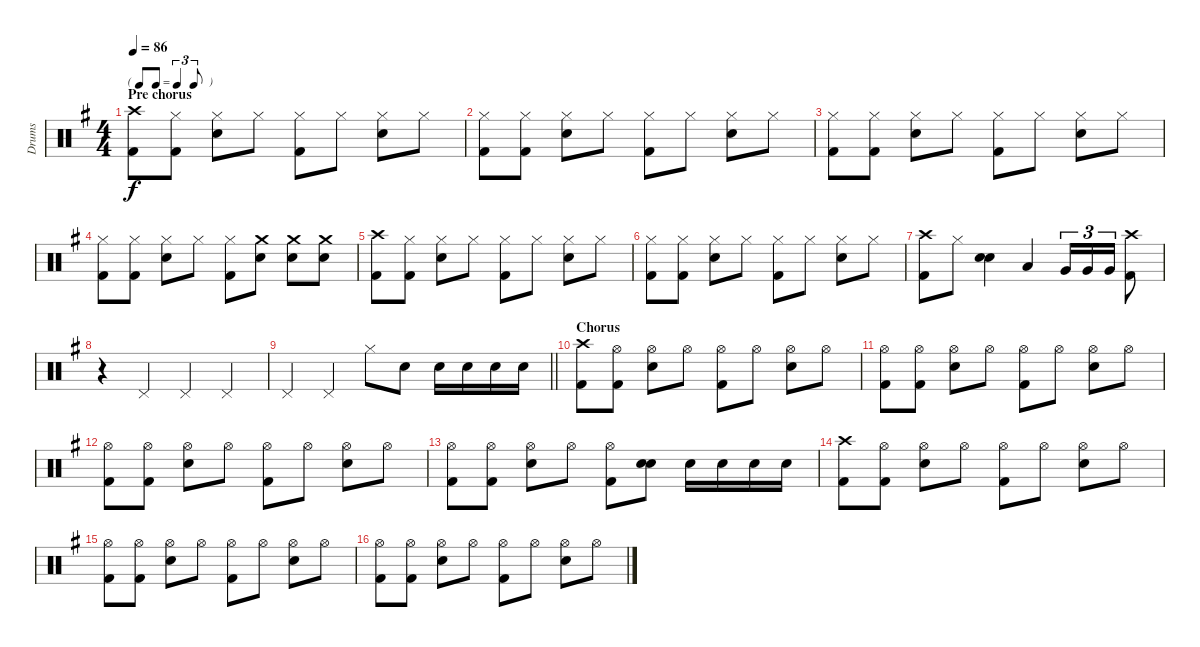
\track ("Drums" "Drums") {instrument percussion}
\staff {score}
\articulation defaults
\ts (4 4)
\tf triplet8th
\section ("" "Pre chorus")
\tempo 86
\clef neutral
\ks g
("Crash high (hit)" "Kick (hit) 2").8{dy f} ("Hi-Hat (closed)" "Kick (hit) 2").8 ("Hi-Hat (closed)" "Snare (hit) 2").8 "Hi-Hat (closed)".8 ("Hi-Hat (closed)" "Kick (hit) 2").8 "Hi-Hat (closed)".8 ("Hi-Hat (closed)" "Snare (hit) 2").8 "Hi-Hat (closed)".8 |
("Hi-Hat (closed)" "Kick (hit) 2").8 ("Hi-Hat (closed)" "Kick (hit) 2").8 ("Hi-Hat (closed)" "Snare (hit) 2").8 "Hi-Hat (closed)".8 ("Hi-Hat (closed)" "Kick (hit) 2").8 "Hi-Hat (closed)".8 ("Hi-Hat (closed)" "Snare (hit) 2").8 "Hi-Hat (closed)".8 |
("Hi-Hat (closed)" "Kick (hit) 2").8 ("Hi-Hat (closed)" "Kick (hit) 2").8 ("Hi-Hat (closed)" "Snare (hit) 2").8 "Hi-Hat (closed)".8 ("Hi-Hat (closed)" "Kick (hit) 2").8 "Hi-Hat (closed)".8 ("Hi-Hat (closed)" "Snare (hit) 2").8 "Hi-Hat (closed)".8 |
("Hi-Hat (closed)" "Kick (hit) 2").8 ("Hi-Hat (closed)" "Kick (hit) 2").8 ("Hi-Hat (closed)" "Snare (hit) 2").8 "Hi-Hat (closed)".8 ("Hi-Hat (closed)" "Kick (hit) 2").8 ("Crash medium (hit)" "Snare (hit) 2").8 ("Crash medium (hit)" "Snare (hit) 2").8 ("Crash medium (hit)" "Snare (hit) 2").8 |
("Crash high (hit)" "Kick (hit) 2").8 ("Hi-Hat (closed)" "Kick (hit) 2").8 ("Hi-Hat (closed)" "Snare (hit) 2").8 "Hi-Hat (closed)".8 ("Hi-Hat (closed)" "Kick (hit) 2").8 "Hi-Hat (closed)".8 ("Hi-Hat (closed)" "Snare (hit) 2").8 "Hi-Hat (closed)".8 |
("Hi-Hat (closed)" "Kick (hit) 2").8 ("Hi-Hat (closed)" "Kick (hit) 2").8 ("Hi-Hat (closed)" "Snare (hit) 2").8 "Hi-Hat (closed)".8 ("Hi-Hat (closed)" "Kick (hit) 2").8 "Hi-Hat (closed)".8 ("Hi-Hat (closed)" "Snare (hit) 2").8 "Hi-Hat (closed)".8 |
("Crash high (hit)" "Kick (hit) 2").8 "Hi-Hat (closed)".8 ("Snare (hit) 2" "Snare (hit) 2").4 "Low Tom (hit)".4 "Very Low Tom (hit)".16{tu (3 2)} "Very Low Tom (hit)".16{tu (3 2)} "Very Low Tom (hit)".16{tu (3 2)} ("Crash high (hit)" "Kick (hit) 2").8 |
r.4 "Pedal Hi-Hat (hit)".4 "Pedal Hi-Hat (hit)".4 "Pedal Hi-Hat (hit)".4 |
\barLineRight lightlight "Pedal Hi-Hat (hit)".4 "Pedal Hi-Hat (hit)".4 "Hi-Hat (closed)".8 "Snare (hit) 2".8 "Snare (hit) 2".16 "Snare (hit) 2".16 "Snare (hit) 2".16 "Snare (hit) 2".16
|
\section ("" "Chorus")
("Crash high (hit)" "Kick (hit) 2").8 ("Hi-Hat (open)" "Kick (hit) 2").8 ("Hi-Hat (open)" "Snare (hit) 2").8 "Hi-Hat (open)".8 ("Hi-Hat (open)" "Kick (hit) 2").8 "Hi-Hat (open)".8 ("Hi-Hat (open)" "Snare (hit) 2").8 "Hi-Hat (open)".8 |
("Hi-Hat (open)" "Kick (hit) 2").8 ("Hi-Hat (open)" "Kick (hit) 2").8 ("Hi-Hat (open)" "Snare (hit) 2").8 "Hi-Hat (open)".8 ("Hi-Hat (open)" "Kick (hit) 2").8 "Hi-Hat (open)".8 ("Hi-Hat (open)" "Snare (hit) 2").8 "Hi-Hat (open)".8 |
("Hi-Hat (open)" "Kick (hit) 2").8 ("Hi-Hat (open)" "Kick (hit) 2").8 ("Hi-Hat (open)" "Snare (hit) 2").8 "Hi-Hat (open)".8 ("Hi-Hat (open)" "Kick (hit) 2").8 "Hi-Hat (open)".8 ("Hi-Hat (open)" "Snare (hit) 2").8 "Hi-Hat (open)".8 |
("Hi-Hat (open)" "Kick (hit) 2").8 ("Hi-Hat (open)" "Kick (hit) 2").8 ("Hi-Hat (open)" "Snare (hit) 2").8 "Hi-Hat (open)".8 ("Hi-Hat (open)" "Kick (hit) 2").8 ("Snare (hit) 2" "Snare (hit) 2").8 "Snare (hit) 2".16 "Snare (hit) 2".16 "Snare (hit) 2".16 "Snare (hit) 2".16 |
("Crash high (hit)" "Kick (hit) 2").8 ("Hi-Hat (open)" "Kick (hit) 2").8 ("Hi-Hat (open)" "Snare (hit) 2").8 "Hi-Hat (open)".8 ("Hi-Hat (open)" "Kick (hit) 2").8 "Hi-Hat (open)".8 ("Hi-Hat (open)" "Snare (hit) 2").8 "Hi-Hat (open)".8 |
("Hi-Hat (open)" "Kick (hit) 2").8 ("Hi-Hat (open)" "Kick (hit) 2").8 ("Hi-Hat (open)" "Snare (hit) 2").8 "Hi-Hat (open)".8 ("Hi-Hat (open)" "Kick (hit) 2").8 "Hi-Hat (open)".8 ("Hi-Hat (open)" "Snare (hit) 2").8 "Hi-Hat (open)".8 |
("Hi-Hat (open)" "Kick (hit) 2").8 ("Hi-Hat (open)" "Kick (hit) 2").8 ("Hi-Hat (open)" "Snare (hit) 2").8 "Hi-Hat (open)".8 ("Hi-Hat (open)" "Kick (hit) 2").8 "Hi-Hat (open)".8 ("Hi-Hat (open)" "Snare (hit) 2").8 "Hi-Hat (open)".8
